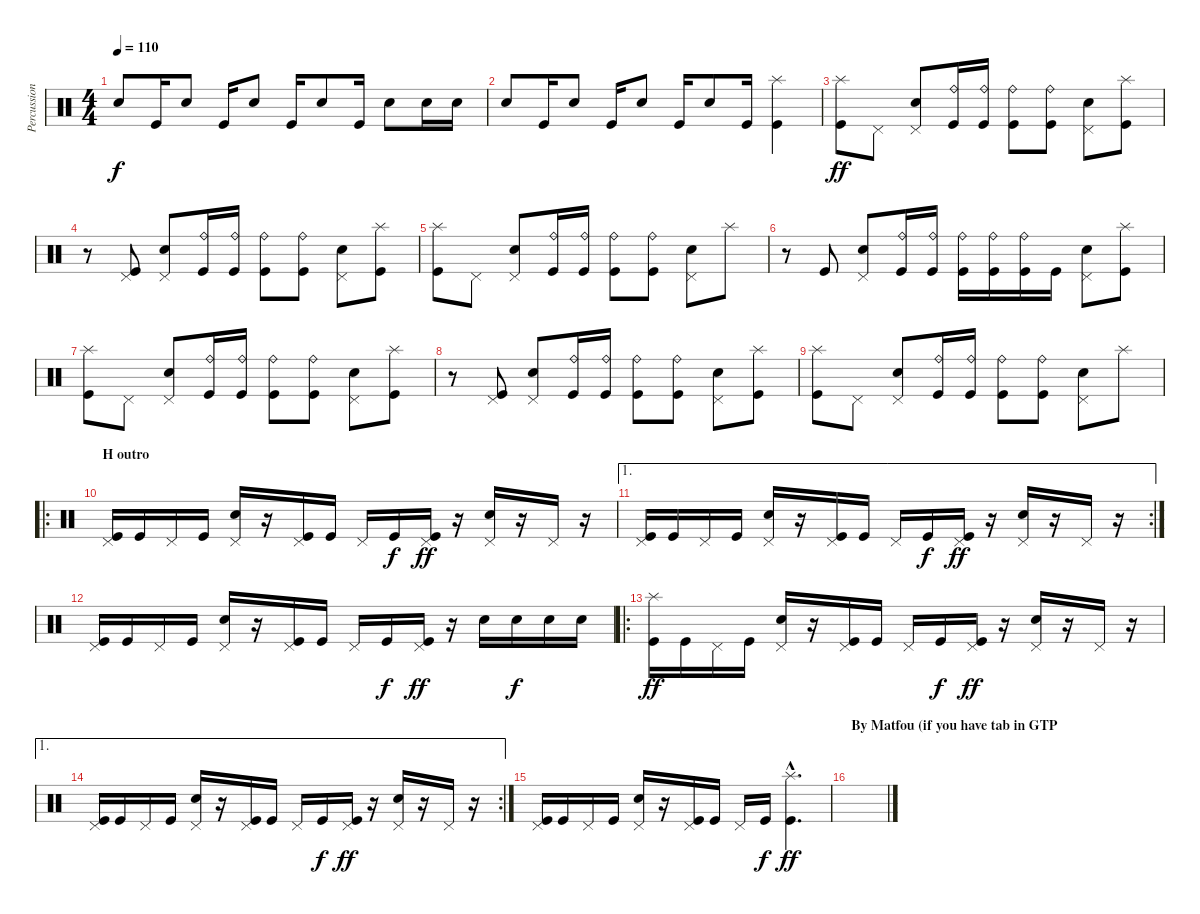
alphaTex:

\track ("Percussion" "Percussion") {instrument percussion}
\staff {score}
\articulation defaults
\ts (4 4)
\tempo 110
\clef neutral
\ks c "Snare (hit) 2".8{dy f} "Kick (hit)".16 "Snare (hit) 2".8 "Kick (hit)".16 "Snare (hit) 2".8 "Kick (hit)".16 "Snare (hit) 2".8 "Kick (hit)".16 "Snare (hit) 2".8 "Snare (hit) 2".16 "Snare (hit) 2".16
|
"Snare (hit) 2".8 "Kick (hit)".16 "Snare (hit) 2".8 "Kick (hit)".16 "Snare (hit) 2".8 "Kick (hit)".16 "Snare (hit) 2".8 "Kick (hit)".16 ("Splash (hit)" "Kick (hit)").4 |
("Splash (hit)" "Kick (hit)").8{dy ff} "Pedal Hi-Hat (hit)".8 ("Pedal Hi-Hat (hit)" "Snare (hit) 2").8 ("Ride (bell)" "Kick (hit)").16 ("Ride (bell)" "Kick (hit)").16 ("Ride (bell)" "Kick (hit)").8 ("Ride (bell)" "Kick (hit)").8 ("Pedal Hi-Hat (hit)" "Snare (hit) 2").8 ("Splash (hit)" "Kick (hit)").8 |
r.8 ("Pedal Hi-Hat (hit)" "Kick (hit)").8 ("Pedal Hi-Hat (hit)" "Snare (hit) 2").8 ("Ride (bell)" "Kick (hit)").16 ("Ride (bell)" "Kick (hit)").16 ("Ride (bell)" "Kick (hit)").8 ("Ride (bell)" "Kick (hit)").8 ("Pedal Hi-Hat (hit)" "Snare (hit) 2").8 ("Splash (hit)" "Kick (hit)").8 |
("Splash (hit)" "Kick (hit)").8 "Pedal Hi-Hat (hit)".8 ("Pedal Hi-Hat (hit)" "Snare (hit) 2").8 ("Ride (bell)" "Kick (hit)").16 ("Ride (bell)" "Kick (hit)").16 ("Ride (bell)" "Kick (hit)").8 ("Ride (bell)" "Kick (hit)").8 ("Pedal Hi-Hat (hit)" "Snare (hit) 2").8 "Splash (hit)".8 |
r.8 "Kick (hit)".8 ("Pedal Hi-Hat (hit)" "Snare (hit) 2").8 ("Ride (bell)" "Kick (hit)").16 ("Ride (bell)" "Kick (hit)").16 ("Ride (bell)" "Kick (hit)").16 ("Ride (bell)" "Kick (hit)").16 ("Ride (bell)" "Kick (hit)").16 "Kick (hit)".16 ("Pedal Hi-Hat (hit)" "Snare (hit) 2").8 ("Splash (hit)" "Kick (hit)").8 |
("Splash (hit)" "Kick (hit)").8 "Pedal Hi-Hat (hit)".8 ("Pedal Hi-Hat (hit)" "Snare (hit) 2").8 ("Ride (bell)" "Kick (hit)").16 ("Ride (bell)" "Kick (hit)").16 ("Ride (bell)" "Kick (hit)").8 ("Ride (bell)" "Kick (hit)").8 ("Pedal Hi-Hat (hit)" "Snare (hit) 2").8 ("Splash (hit)" "Kick (hit)").8 |
r.8 ("Pedal Hi-Hat (hit)" "Kick (hit)").8 ("Pedal Hi-Hat (hit)" "Snare (hit) 2").8 ("Ride (bell)" "Kick (hit)").16 ("Ride (bell)" "Kick (hit)").16 ("Ride (bell)" "Kick (hit)").8 ("Ride (bell)" "Kick (hit)").8 ("Pedal Hi-Hat (hit)" "Snare (hit) 2").8 ("Splash (hit)" "Kick (hit)").8 |
("Splash (hit)" "Kick (hit)").8 "Pedal Hi-Hat (hit)".8 ("Pedal Hi-Hat (hit)" "Snare (hit) 2").8 ("Ride (bell)" "Kick (hit)").16 ("Ride (bell)" "Kick (hit)").16 ("Ride (bell)" "Kick (hit)").8 ("Ride (bell)" "Kick (hit)").8 ("Pedal Hi-Hat (hit)" "Snare (hit) 2").8 "Splash (hit)".8 |
\ro
\section ("" "H outro")
("Pedal Hi-Hat (hit)" "Kick (hit)").16 "Kick (hit)".16 "Pedal Hi-Hat (hit)".16 "Kick (hit)".16 ("Pedal Hi-Hat (hit)" "Snare (hit) 2").16 r.16 ("Pedal Hi-Hat (hit)" "Kick (hit)").16 "Kick (hit)".16 "Pedal Hi-Hat (hit)".16 "Kick (hit)".16{dy f} ("Pedal Hi-Hat (hit)" "Kick (hit)").16{dy ff} r.16 ("Pedal Hi-Hat (hit)" "Snare (hit) 2").16 r.16 "Pedal Hi-Hat (hit)".16 r.16 |
\ae 1
\rc 2
("Pedal Hi-Hat (hit)" "Kick (hit)").16 "Kick (hit)".16 "Pedal Hi-Hat (hit)".16 "Kick (hit)".16 ("Pedal Hi-Hat (hit)" "Snare (hit) 2").16 r.16 ("Pedal Hi-Hat (hit)" "Kick (hit)").16 "Kick (hit)".16 "Pedal Hi-Hat (hit)".16 "Kick (hit)".16{dy f} ("Pedal Hi-Hat (hit)" "Kick (hit)").16{dy ff} r.16 ("Pedal Hi-Hat (hit)" "Snare (hit) 2").16 r.16 "Pedal Hi-Hat (hit)".16 r.16 |
("Pedal Hi-Hat (hit)" "Kick (hit)").16 "Kick (hit)".16 "Pedal Hi-Hat (hit)".16 "Kick (hit)".16 ("Pedal Hi-Hat (hit)" "Snare (hit) 2").16 r.16 ("Pedal Hi-Hat (hit)" "Kick (hit)").16 "Kick (hit)".16 "Pedal Hi-Hat (hit)".16 "Kick (hit)".16{dy f} ("Pedal Hi-Hat (hit)" "Kick (hit)").16{dy ff} r.16 "Snare (hit) 2".16 "Snare (hit) 2".16{dy f} "Snare (hit) 2".16 "Snare (hit) 2".16 |
\ro
("Splash (hit)" "Kick (hit)").16{dy ff} "Kick (hit)".16 "Pedal Hi-Hat (hit)".16 "Kick (hit)".16 ("Pedal Hi-Hat (hit)" "Snare (hit) 2").16 r.16 ("Pedal Hi-Hat (hit)" "Kick (hit)").16 "Kick (hit)".16 "Pedal Hi-Hat (hit)".16 "Kick (hit)".16{dy f} ("Pedal Hi-Hat (hit)" "Kick (hit)").16{dy ff} r.16 ("Pedal Hi-Hat (hit)" "Snare (hit) 2").16 r.16 "Pedal Hi-Hat (hit)".16 r.16 |
\ae 1
\rc 2
("Pedal Hi-Hat (hit)" "Kick (hit)").16 "Kick (hit)".16 "Pedal Hi-Hat (hit)".16 "Kick (hit)".16 ("Pedal Hi-Hat (hit)" "Snare (hit) 2").16 r.16 ("Pedal Hi-Hat (hit)" "Kick (hit)").16 "Kick (hit)".16 "Pedal Hi-Hat (hit)".16 "Kick (hit)".16{dy f} ("Pedal Hi-Hat (hit)" "Kick (hit)").16{dy ff} r.16 ("Pedal Hi-Hat (hit)" "Snare (hit) 2").16 r.16 "Pedal Hi-Hat (hit)".16 r.16 |
("Pedal Hi-Hat (hit)" "Kick (hit)").16 "Kick (hit)".16 "Pedal Hi-Hat (hit)".16 "Kick (hit)".16 ("Pedal Hi-Hat (hit)" "Snare (hit) 2").16 r.16 ("Pedal Hi-Hat (hit)" "Kick (hit)").16 "Kick (hit)".16 "Pedal Hi-Hat (hit)".16 "Kick (hit)".16{dy f} ("Splash (hit)"{hac} "Kick (hit)"{hac}).4{d dy ff} |
\section ("" "By Matfou (if you have tab in GTP")
